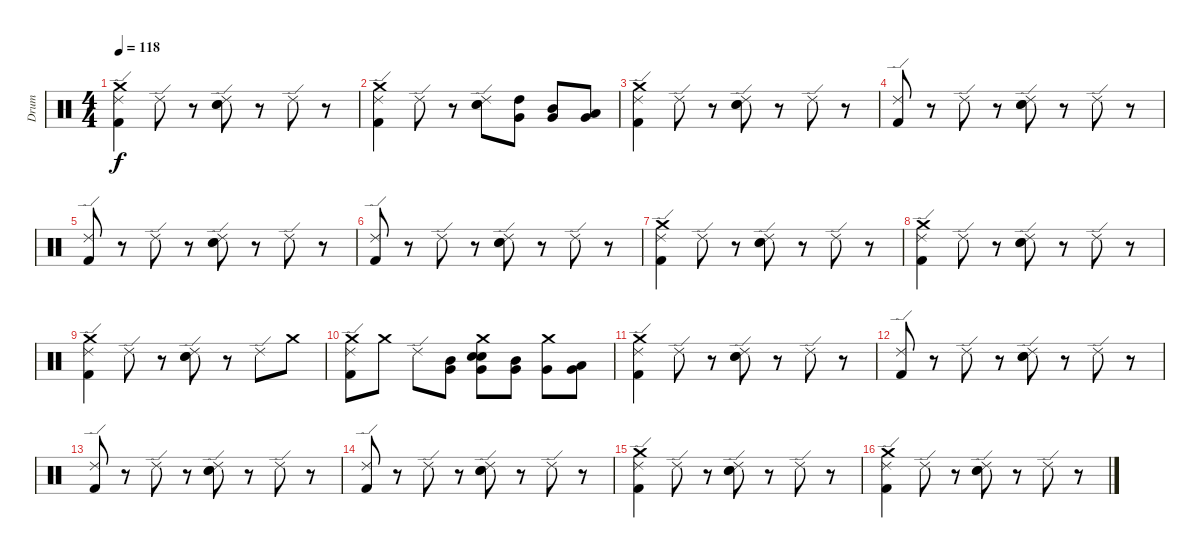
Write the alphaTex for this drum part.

\track (" Drum" " Drum") {instrument percussion}
\staff {score}
\articulation defaults
\ts (4 4)
\tempo 118
\clef neutral
\ks c
("Crash medium (hit)" "Kick (hit) 2" "Ride (edge) 2").4{dy f} "Ride (edge) 2".8 r.8 ("Electric Snare (hit)" "Snare (hit) 2" "Ride (edge) 2").8 r.8 "Ride (edge) 2".8 r.8 |
("Crash medium (hit)" "Kick (hit) 2" "Ride (edge) 2").4 "Ride (edge) 2".8 r.8 ("Electric Snare (hit)" "Snare (hit) 2" "Ride (edge) 2").8 ("Very Low Tom (hit)" "High Tom (hit)").8 ("Mid Tom (hit)" "Very Low Tom (hit)").8 ("Low Tom (hit)" "Very Low Tom (hit)").8 |
("Crash medium (hit)" "Kick (hit) 2" "Ride (edge) 2").4 "Ride (edge) 2".8 r.8 ("Electric Snare (hit)" "Snare (hit) 2" "Ride (edge) 2").8 r.8 "Ride (edge) 2".8 r.8 |
("Kick (hit) 2" "Ride (edge) 2").8 r.8 "Ride (edge) 2".8 r.8 ("Electric Snare (hit)" "Snare (hit) 2" "Ride (edge) 2").8 r.8 "Ride (edge) 2".8 r.8 |
("Kick (hit) 2" "Ride (edge) 2").8 r.8 "Ride (edge) 2".8 r.8 ("Electric Snare (hit)" "Snare (hit) 2" "Ride (edge) 2").8 r.8 "Ride (edge) 2".8 r.8 |
("Kick (hit) 2" "Ride (edge) 2").8 r.8 "Ride (edge) 2".8 r.8 ("Electric Snare (hit)" "Snare (hit) 2" "Ride (edge) 2").8 r.8 "Ride (edge) 2".8 r.8 |
("Crash medium (hit)" "Kick (hit) 2" "Ride (edge) 2").4 "Ride (edge) 2".8 r.8 ("Electric Snare (hit)" "Snare (hit) 2" "Ride (edge) 2").8 r.8 "Ride (edge) 2".8 r.8 |
("Crash medium (hit)" "Kick (hit) 2" "Ride (edge) 2").4 "Ride (edge) 2".8 r.8 ("Electric Snare (hit)" "Snare (hit) 2" "Ride (edge) 2").8 r.8 "Ride (edge) 2".8 r.8 |
("Crash medium (hit)" "Kick (hit) 2" "Ride (edge) 2").4 "Ride (edge) 2".8 r.8 ("Electric Snare (hit)" "Snare (hit) 2" "Ride (edge) 2").8 r.8 "Ride (edge) 2".8 "Crash medium (hit)".8 |
("Crash medium (hit)" "Kick (hit) 2" "Ride (edge) 2").8 "Crash medium (hit)".8 "Ride (edge) 2".8 ("Mid Tom (hit)" "Very Low Tom (hit)").8 ("Crash medium (hit)" "Very Low Tom (hit)" "Electric Snare (hit)" "Snare (hit) 2").8 ("Mid Tom (hit)" "Very Low Tom (hit)").8 ("Crash medium (hit)" "Very Low Tom (hit)").8 ("Low Tom (hit)" "Very Low Tom (hit)").8 |
("Crash medium (hit)" "Kick (hit) 2" "Ride (edge) 2").4 "Ride (edge) 2".8 r.8 ("Electric Snare (hit)" "Snare (hit) 2" "Ride (edge) 2").8 r.8 "Ride (edge) 2".8 r.8 |
("Kick (hit) 2" "Ride (edge) 2").8 r.8 "Ride (edge) 2".8 r.8 ("Electric Snare (hit)" "Snare (hit) 2" "Ride (edge) 2").8 r.8 "Ride (edge) 2".8 r.8 |
("Kick (hit) 2" "Ride (edge) 2").8 r.8 "Ride (edge) 2".8 r.8 ("Electric Snare (hit)" "Snare (hit) 2" "Ride (edge) 2").8 r.8 "Ride (edge) 2".8 r.8 |
("Kick (hit) 2" "Ride (edge) 2").8 r.8 "Ride (edge) 2".8 r.8 ("Electric Snare (hit)" "Snare (hit) 2" "Ride (edge) 2").8 r.8 "Ride (edge) 2".8 r.8 |
("Crash medium (hit)" "Kick (hit) 2" "Ride (edge) 2").4 "Ride (edge) 2".8 r.8 ("Electric Snare (hit)" "Snare (hit) 2" "Ride (edge) 2").8 r.8 "Ride (edge) 2".8 r.8 |
("Crash medium (hit)" "Kick (hit) 2" "Ride (edge) 2").4 "Ride (edge) 2".8 r.8 ("Electric Snare (hit)" "Snare (hit) 2" "Ride (edge) 2").8 r.8 "Ride (edge) 2".8 r.8
